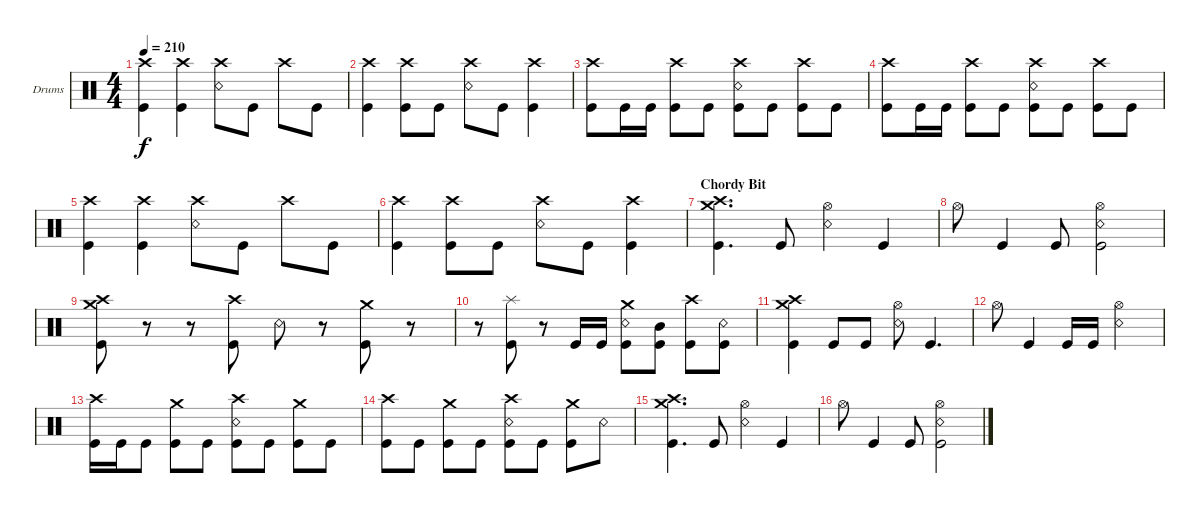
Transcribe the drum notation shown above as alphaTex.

\defaultSystemsLayout 4
\bracketExtendMode groupsimilarinstruments
\firstSystemTrackNameOrientation horizontal
\otherSystemsTrackNameOrientation horizontal
\track ("Drums" "Drums") {instrument percussion}
\staff {score}
\articulation defaults
\ts (4 4)
\tempo 210
\clef neutral
\ks c
("Crash high (hit)" "Kick (hit)").4{dy f} ("Crash high (hit)" "Kick (hit)").4 ("Crash high (hit)" "Snare (rim shot)").8 "Kick (hit)".8 "Crash high (hit)".8 "Kick (hit)".8 |
("Crash high (hit)" "Kick (hit)").4 ("Crash high (hit)" "Kick (hit)").8 "Kick (hit)".8 ("Crash high (hit)" "Snare (rim shot)").8 "Kick (hit)".8 ("Crash high (hit)" "Kick (hit)").4 |
("Crash high (hit)" "Kick (hit)").8 "Kick (hit)".16 "Kick (hit)".16 ("Crash high (hit)" "Kick (hit)").8 "Kick (hit)".8 ("Crash high (hit)" "Snare (rim shot)" "Kick (hit)").8 "Kick (hit)".8 ("Crash high (hit)" "Kick (hit)").8 "Kick (hit)".8 |
("Crash high (hit)" "Kick (hit)").8 "Kick (hit)".16 "Kick (hit)".16 ("Crash high (hit)" "Kick (hit)").8 "Kick (hit)".8 ("Crash high (hit)" "Snare (rim shot)" "Kick (hit)").8 "Kick (hit)".8 ("Crash high (hit)" "Kick (hit)").8 "Kick (hit)".8 |
("Crash high (hit)" "Kick (hit)").4 ("Crash high (hit)" "Kick (hit)").4 ("Crash high (hit)" "Snare (rim shot)").8 "Kick (hit)".8 "Crash high (hit)".8 "Kick (hit)".8 |
("Crash high (hit)" "Kick (hit)").4 ("Crash high (hit)" "Kick (hit)").8 "Kick (hit)".8 ("Crash high (hit)" "Snare (rim shot)").8 "Kick (hit)".8 ("Crash high (hit)" "Kick (hit)").4 |
\section ("" "Chordy Bit")
("Crash high (hit)" "Crash medium (hit)" "Kick (hit)").4{d} "Kick (hit)".8 ("Hi-Hat (open)" "Snare (rim shot)").4 "Kick (hit)".4 |
"Hi-Hat (open)".8 "Kick (hit)".4 "Kick (hit)".8 ("Hi-Hat (open)" "Snare (rim shot)" "Kick (hit)").2 |
("Kick (hit)" "Crash high (hit)" "Crash medium (hit)").8 r.8 r.8 ("Kick (hit)" "Crash high (hit)").8 "Snare (rim shot)".8 r.8 ("Kick (hit)" "Crash medium (hit)").8 r.8 |
r.8 ("Kick (hit)" "Splash (hit)").8 r.8 "Kick (hit)".16 "Kick (hit)".16 ("Kick (hit)" "Crash medium (hit)" "Snare (rim shot)").8 ("Kick (hit)" "Mid Tom (hit)").8 ("Kick (hit)" "Crash high (hit)").8 ("Kick (hit)" "Snare (rim shot)").8 |
("Crash high (hit)" "Crash medium (hit)" "Kick (hit)").4 "Kick (hit)".8 "Kick (hit)".8 ("Hi-Hat (open)" "Snare (rim shot)").8 "Kick (hit)".4{d} |
"Hi-Hat (open)".8 "Kick (hit)".4 "Kick (hit)".16 "Kick (hit)".16 ("Hi-Hat (open)" "Snare (rim shot)").2 |
("Crash high (hit)" "Kick (hit)").16 "Kick (hit)".16 "Kick (hit)".8 ("Crash medium (hit)" "Kick (hit)").8 "Kick (hit)".8 ("Crash high (hit)" "Snare (rim shot)" "Kick (hit)").8 "Kick (hit)".8 ("Crash medium (hit)" "Kick (hit)").8 "Kick (hit)".8 |
("Crash high (hit)" "Kick (hit)").8 "Kick (hit)".8 ("Crash medium (hit)" "Kick (hit)").8 "Kick (hit)".8 ("Crash high (hit)" "Snare (rim shot)" "Kick (hit)").8 "Kick (hit)".8 ("Crash medium (hit)" "Kick (hit)").8 "Snare (rim shot)".8 |
("Crash high (hit)" "Crash medium (hit)" "Kick (hit)").4{d} "Kick (hit)".8 ("Hi-Hat (open)" "Snare (rim shot)").4 "Kick (hit)".4 |
"Hi-Hat (open)".8 "Kick (hit)".4 "Kick (hit)".8 ("Hi-Hat (open)" "Snare (rim shot)" "Kick (hit)").2
